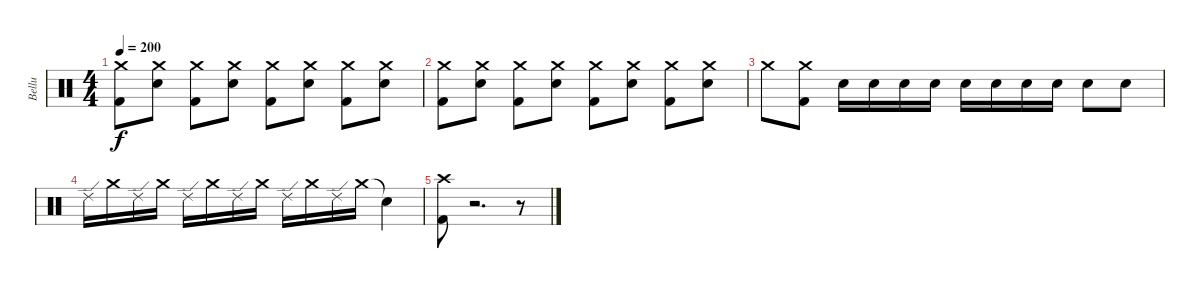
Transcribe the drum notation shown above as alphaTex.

\track ("Bellu" "Bellu") {instrument percussion}
\staff {score}
\articulation defaults
\ts (4 4)
\tempo 200
\clef neutral
\ks c
("Crash medium (hit)" "Kick (hit) 2").8{dy f} ("Crash medium (hit)" "Electric Snare (hit)").8 ("Crash medium (hit)" "Kick (hit) 2").8 ("Crash medium (hit)" "Electric Snare (hit)").8 ("Crash medium (hit)" "Kick (hit) 2").8 ("Crash medium (hit)" "Electric Snare (hit)").8 ("Crash medium (hit)" "Kick (hit) 2").8 ("Crash medium (hit)" "Electric Snare (hit)").8 |
("Crash medium (hit)" "Kick (hit) 2").8 ("Crash medium (hit)" "Electric Snare (hit)").8 ("Crash medium (hit)" "Kick (hit) 2").8 ("Crash medium (hit)" "Electric Snare (hit)").8 ("Crash medium (hit)" "Kick (hit) 2").8 ("Crash medium (hit)" "Electric Snare (hit)").8 ("Crash medium (hit)" "Kick (hit) 2").8 ("Crash medium (hit)" "Electric Snare (hit)").8 |
"Crash medium (hit)".8 ("Kick (hit) 2" "Crash medium (hit)").8 "Electric Snare (hit)".16 "Electric Snare (hit)".16 "Electric Snare (hit)".16 "Electric Snare (hit)".16 "Electric Snare (hit)".16 "Electric Snare (hit)".16 "Electric Snare (hit)".16 "Electric Snare (hit)".16 "Electric Snare (hit)".8 "Electric Snare (hit)".8 |
"Ride (edge) 2".16 "Crash medium (hit)".16 "Ride (edge) 2".16 "Crash medium (hit)".16 "Ride (edge) 2".16 "Crash medium (hit)".16 "Ride (edge) 2".16 "Crash medium (hit)".16 "Ride (edge) 2".16 "Crash medium (hit)".16 "Ride (edge) 2".16 "Crash medium (hit)".16 "Snare (hit)"{t}.4 |
("Crash high (hit)" "Kick (hit) 2").8 r.2{d} r.8
